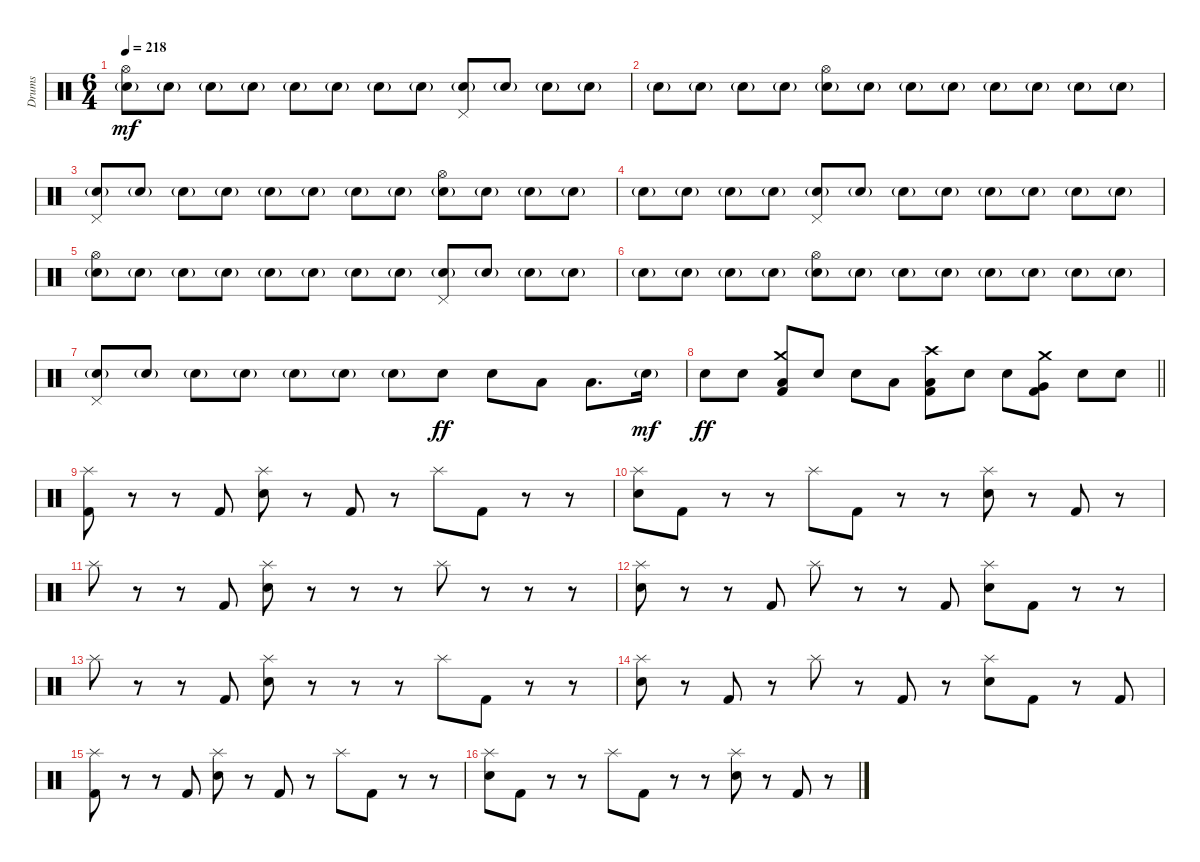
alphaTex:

\track ("Drums" "Drums") {instrument percussion}
\staff {score}
\articulation defaults
\ts (6 4)
\tempo 218
\clef neutral
\ks c
("Hi-Hat (open)" "Electric Snare (hit)"{g}).8{dy mf} "Electric Snare (hit)"{g}.8 "Electric Snare (hit)"{g}.8 "Electric Snare (hit)"{g}.8 "Electric Snare (hit)"{g}.8 "Electric Snare (hit)"{g}.8 "Electric Snare (hit)"{g}.8 "Electric Snare (hit)"{g}.8 ("Pedal Hi-Hat (hit)" "Electric Snare (hit)"{g}).8 "Electric Snare (hit)"{g}.8 "Electric Snare (hit)"{g}.8 "Electric Snare (hit)"{g}.8 |
"Electric Snare (hit)"{g}.8 "Electric Snare (hit)"{g}.8 "Electric Snare (hit)"{g}.8 "Electric Snare (hit)"{g}.8 ("Hi-Hat (open)" "Electric Snare (hit)"{g}).8 "Electric Snare (hit)"{g}.8 "Electric Snare (hit)"{g}.8 "Electric Snare (hit)"{g}.8 "Electric Snare (hit)"{g}.8 "Electric Snare (hit)"{g}.8 "Electric Snare (hit)"{g}.8 "Electric Snare (hit)"{g}.8 |
("Pedal Hi-Hat (hit)" "Electric Snare (hit)"{g}).8 "Electric Snare (hit)"{g}.8 "Electric Snare (hit)"{g}.8 "Electric Snare (hit)"{g}.8 "Electric Snare (hit)"{g}.8 "Electric Snare (hit)"{g}.8 "Electric Snare (hit)"{g}.8 "Electric Snare (hit)"{g}.8 ("Hi-Hat (open)" "Electric Snare (hit)"{g}).8 "Electric Snare (hit)"{g}.8 "Electric Snare (hit)"{g}.8 "Electric Snare (hit)"{g}.8 |
"Electric Snare (hit)"{g}.8 "Electric Snare (hit)"{g}.8 "Electric Snare (hit)"{g}.8 "Electric Snare (hit)"{g}.8 ("Pedal Hi-Hat (hit)" "Electric Snare (hit)"{g}).8 "Electric Snare (hit)"{g}.8 "Electric Snare (hit)"{g}.8 "Electric Snare (hit)"{g}.8 "Electric Snare (hit)"{g}.8 "Electric Snare (hit)"{g}.8 "Electric Snare (hit)"{g}.8 "Electric Snare (hit)"{g}.8 |
("Hi-Hat (open)" "Electric Snare (hit)"{g}).8 "Electric Snare (hit)"{g}.8 "Electric Snare (hit)"{g}.8 "Electric Snare (hit)"{g}.8 "Electric Snare (hit)"{g}.8 "Electric Snare (hit)"{g}.8 "Electric Snare (hit)"{g}.8 "Electric Snare (hit)"{g}.8 ("Pedal Hi-Hat (hit)" "Electric Snare (hit)"{g}).8 "Electric Snare (hit)"{g}.8 "Electric Snare (hit)"{g}.8 "Electric Snare (hit)"{g}.8 |
"Electric Snare (hit)"{g}.8 "Electric Snare (hit)"{g}.8 "Electric Snare (hit)"{g}.8 "Electric Snare (hit)"{g}.8 ("Hi-Hat (open)" "Electric Snare (hit)"{g}).8 "Electric Snare (hit)"{g}.8 "Electric Snare (hit)"{g}.8 "Electric Snare (hit)"{g}.8 "Electric Snare (hit)"{g}.8 "Electric Snare (hit)"{g}.8 "Electric Snare (hit)"{g}.8 "Electric Snare (hit)"{g}.8 |
("Pedal Hi-Hat (hit)" "Electric Snare (hit)"{g}).8 "Electric Snare (hit)"{g}.8 "Electric Snare (hit)"{g}.8 "Electric Snare (hit)"{g}.8 "Electric Snare (hit)"{g}.8 "Electric Snare (hit)"{g}.8 "Electric Snare (hit)"{g}.8 "Electric Snare (hit)".8{dy ff} "Electric Snare (hit)".8 "Low Tom (hit)".8 "Low Floor Tom (hit)".8{d} "Electric Snare (hit)"{g}.16{dy mf} |
\barLineRight lightlight "Electric Snare (hit)".8{dy ff} "Electric Snare (hit)".8
("Crash medium (hit)" "Low Tom (hit)" "Kick (hit) 2").8 "Electric Snare (hit)".8 "Electric Snare (hit)".8 "Low Tom (hit)".8 ("Crash high (hit)" "Low Floor Tom (hit)" "Kick (hit) 2").8 "Electric Snare (hit)".8 "Electric Snare (hit)".8 ("Crash medium (hit)" "Very Low Tom (hit)" "Kick (hit) 2").8 "Electric Snare (hit)".8 "Electric Snare (hit)".8 |
\section ("" "")
("Splash (hit)" "Kick (hit) 2").8 r.8 r.8 "Kick (hit) 2".8 ("Splash (hit)" "Electric Snare (hit)").8 r.8 "Kick (hit) 2".8 r.8 "Splash (hit)".8 "Kick (hit) 2".8 r.8 r.8 |
("Splash (hit)" "Electric Snare (hit)").8 "Kick (hit) 2".8 r.8 r.8 "Splash (hit)".8 "Kick (hit) 2".8 r.8 r.8 ("Splash (hit)" "Electric Snare (hit)").8 r.8 "Kick (hit) 2".8 r.8 |
"Splash (hit)".8 r.8 r.8 "Kick (hit) 2".8 ("Splash (hit)" "Electric Snare (hit)").8 r.8 r.8 r.8 "Splash (hit)".8 r.8 r.8 r.8 |
("Splash (hit)" "Electric Snare (hit)").8 r.8 r.8 "Kick (hit) 2".8 "Splash (hit)".8 r.8 r.8 "Kick (hit) 2".8 ("Splash (hit)" "Electric Snare (hit)").8 "Kick (hit) 2".8 r.8 r.8 |
"Splash (hit)".8 r.8 r.8 "Kick (hit) 2".8 ("Splash (hit)" "Electric Snare (hit)").8 r.8 r.8 r.8 "Splash (hit)".8 "Kick (hit) 2".8 r.8 r.8 |
("Splash (hit)" "Electric Snare (hit)").8 r.8 "Kick (hit) 2".8 r.8 "Splash (hit)".8 r.8 "Kick (hit) 2".8 r.8 ("Splash (hit)" "Electric Snare (hit)").8 "Kick (hit) 2".8 r.8 "Kick (hit) 2".8 |
("Splash (hit)" "Kick (hit) 2").8 r.8 r.8 "Kick (hit) 2".8 ("Splash (hit)" "Electric Snare (hit)").8 r.8 "Kick (hit) 2".8 r.8 "Splash (hit)".8 "Kick (hit) 2".8 r.8 r.8 |
("Splash (hit)" "Electric Snare (hit)").8 "Kick (hit) 2".8 r.8 r.8 "Splash (hit)".8 "Kick (hit) 2".8 r.8 r.8 ("Splash (hit)" "Electric Snare (hit)").8 r.8 "Kick (hit) 2".8 r.8
